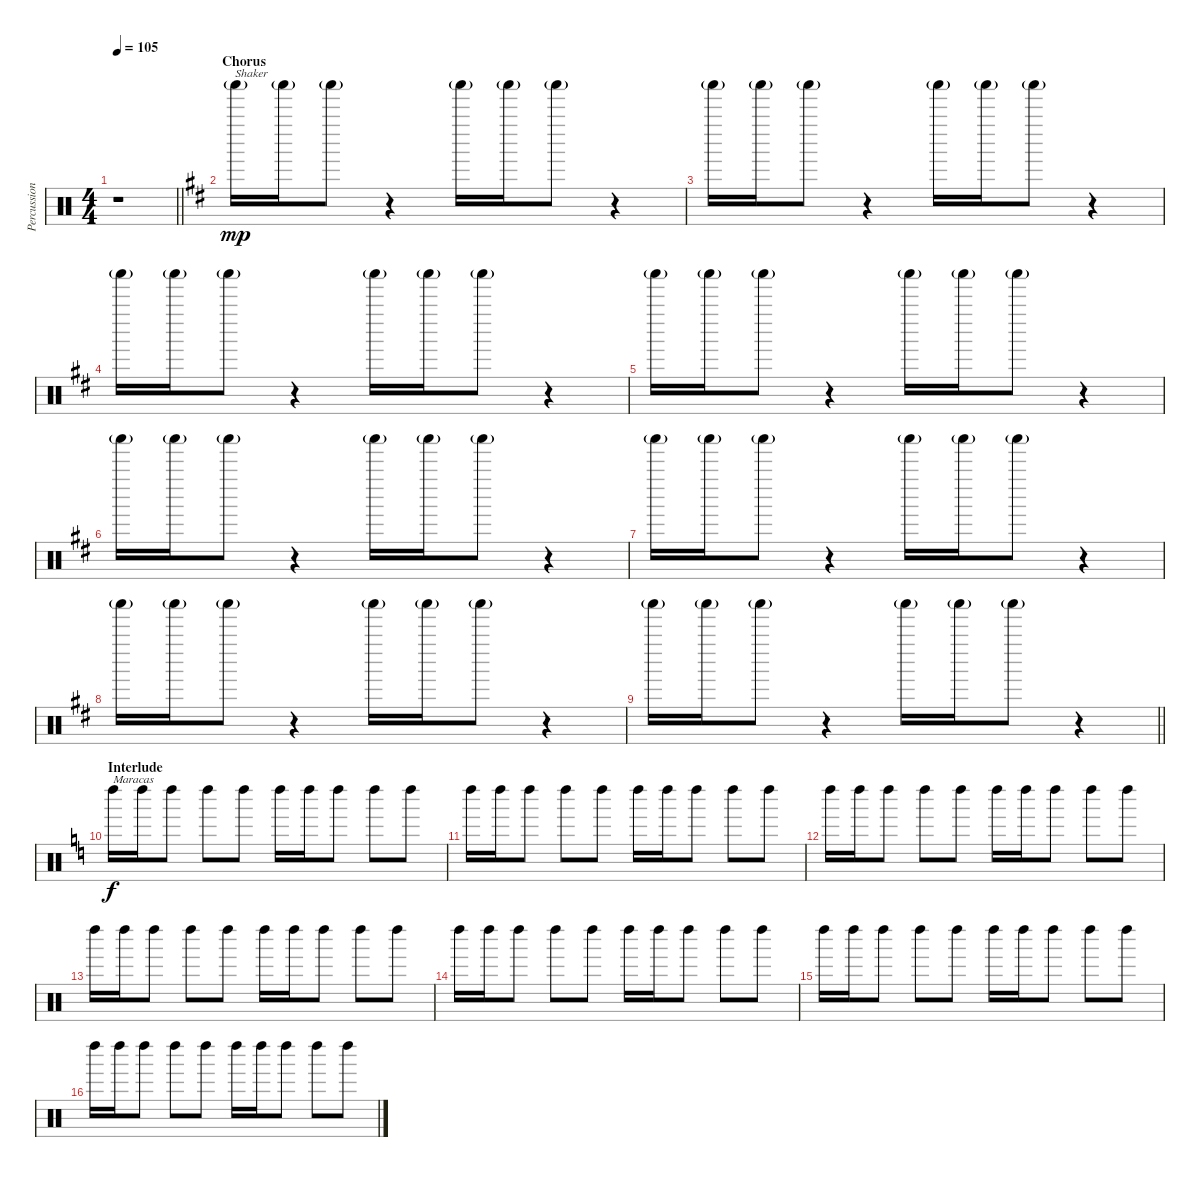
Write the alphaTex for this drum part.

\track ("Percussion" "Percussion") {instrument percussion}
\staff {score}
\articulation defaults
\ts (4 4)
\tempo 105
\clef neutral
\barLineRight lightlight
\ks aminor
r.1{dy mp} |
\section ("" "Chorus")
\ks bminor "Shaker (hit)"{g}.16{txt "Shaker"} "Shaker (hit)"{g}.16 "Shaker (hit)"{g}.8
r.4 "Shaker (hit)"{g}.16 "Shaker (hit)"{g}.16 "Shaker (hit)"{g}.8 r.4 |
"Shaker (hit)"{g}.16 "Shaker (hit)"{g}.16 "Shaker (hit)"{g}.8 r.4 "Shaker (hit)"{g}.16 "Shaker (hit)"{g}.16 "Shaker (hit)"{g}.8 r.4 |
"Shaker (hit)"{g}.16 "Shaker (hit)"{g}.16 "Shaker (hit)"{g}.8 r.4 "Shaker (hit)"{g}.16 "Shaker (hit)"{g}.16 "Shaker (hit)"{g}.8 r.4 |
"Shaker (hit)"{g}.16 "Shaker (hit)"{g}.16 "Shaker (hit)"{g}.8 r.4 "Shaker (hit)"{g}.16 "Shaker (hit)"{g}.16 "Shaker (hit)"{g}.8 r.4 |
"Shaker (hit)"{g}.16 "Shaker (hit)"{g}.16 "Shaker (hit)"{g}.8 r.4 "Shaker (hit)"{g}.16 "Shaker (hit)"{g}.16 "Shaker (hit)"{g}.8 r.4 |
"Shaker (hit)"{g}.16 "Shaker (hit)"{g}.16 "Shaker (hit)"{g}.8 r.4 "Shaker (hit)"{g}.16 "Shaker (hit)"{g}.16 "Shaker (hit)"{g}.8 r.4 |
"Shaker (hit)"{g}.16 "Shaker (hit)"{g}.16 "Shaker (hit)"{g}.8 r.4 "Shaker (hit)"{g}.16 "Shaker (hit)"{g}.16 "Shaker (hit)"{g}.8 r.4 |
\barLineRight lightlight "Shaker (hit)"{g}.16 "Shaker (hit)"{g}.16 "Shaker (hit)"{g}.8
r.4 "Shaker (hit)"{g}.16 "Shaker (hit)"{g}.16 "Shaker (hit)"{g}.8 r.4 |
\section ("" "Interlude")
\ks aminor "Left Maraca (hit)".16{txt "Maracas" dy f} "Left Maraca (hit)".16 "Left Maraca (hit)".8 "Left Maraca (hit)".8 "Left Maraca (hit)".8 "Left Maraca (hit)".16 "Left Maraca (hit)".16 "Left Maraca (hit)".8 "Left Maraca (hit)".8 "Left Maraca (hit)".8
|
"Left Maraca (hit)".16 "Left Maraca (hit)".16 "Left Maraca (hit)".8 "Left Maraca (hit)".8 "Left Maraca (hit)".8 "Left Maraca (hit)".16 "Left Maraca (hit)".16 "Left Maraca (hit)".8 "Left Maraca (hit)".8 "Left Maraca (hit)".8 |
"Left Maraca (hit)".16 "Left Maraca (hit)".16 "Left Maraca (hit)".8 "Left Maraca (hit)".8 "Left Maraca (hit)".8 "Left Maraca (hit)".16 "Left Maraca (hit)".16 "Left Maraca (hit)".8 "Left Maraca (hit)".8 "Left Maraca (hit)".8 |
"Left Maraca (hit)".16 "Left Maraca (hit)".16 "Left Maraca (hit)".8 "Left Maraca (hit)".8 "Left Maraca (hit)".8 "Left Maraca (hit)".16 "Left Maraca (hit)".16 "Left Maraca (hit)".8 "Left Maraca (hit)".8 "Left Maraca (hit)".8 |
"Left Maraca (hit)".16 "Left Maraca (hit)".16 "Left Maraca (hit)".8 "Left Maraca (hit)".8 "Left Maraca (hit)".8 "Left Maraca (hit)".16 "Left Maraca (hit)".16 "Left Maraca (hit)".8 "Left Maraca (hit)".8 "Left Maraca (hit)".8 |
"Left Maraca (hit)".16 "Left Maraca (hit)".16 "Left Maraca (hit)".8 "Left Maraca (hit)".8 "Left Maraca (hit)".8 "Left Maraca (hit)".16 "Left Maraca (hit)".16 "Left Maraca (hit)".8 "Left Maraca (hit)".8 "Left Maraca (hit)".8 |
"Left Maraca (hit)".16 "Left Maraca (hit)".16 "Left Maraca (hit)".8 "Left Maraca (hit)".8 "Left Maraca (hit)".8 "Left Maraca (hit)".16 "Left Maraca (hit)".16 "Left Maraca (hit)".8 "Left Maraca (hit)".8 "Left Maraca (hit)".8
